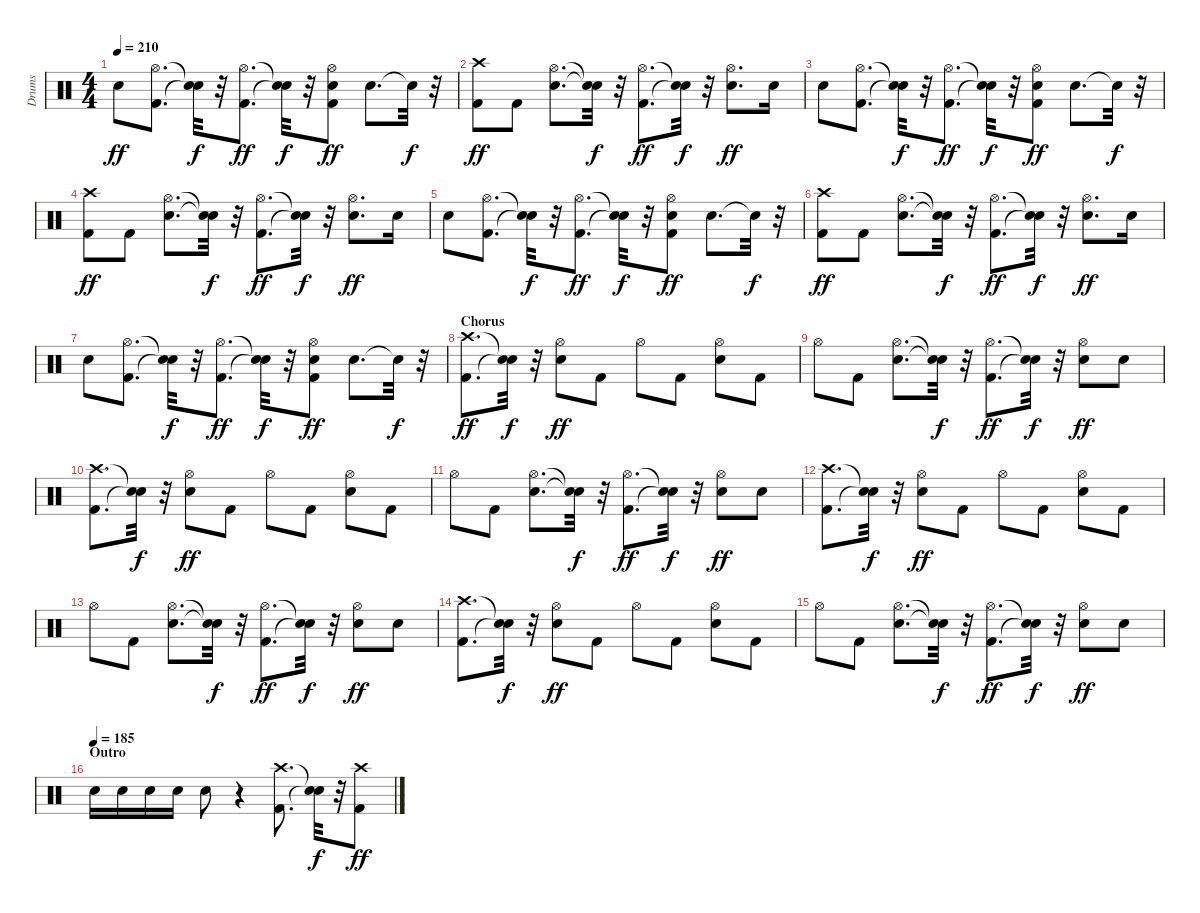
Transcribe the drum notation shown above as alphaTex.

\track ("Drums" "Drums") {instrument percussion}
\staff {score}
\articulation defaults
\ts (4 4)
\tempo 210
\clef neutral
\ks c "Snare (hit) 2".8{dy ff}
("Kick (hit) 2" "Hi-Hat (open)").8{d} ("Snare (hit)"{t} "Snare (hit)"{t}).32{dy f} r.32 ("Kick (hit) 2" "Hi-Hat (open)").8{d dy ff} ("Snare (hit)"{t} "Snare (hit)"{t}).32{dy f} r.32 ("Kick (hit) 2" "Snare (hit) 2" "Hi-Hat (open)").8{dy ff} "Snare (hit) 2".8{d} "Snare (hit)"{t}.32{dy f} r.32 |
("Kick (hit) 2" "Crash high (hit)").8{dy ff} "Kick (hit) 2".8 ("Snare (hit) 2" "Hi-Hat (open)").8{d} ("Snare (hit)"{t} "Snare (hit)"{t}).32{dy f} r.32 ("Kick (hit) 2" "Hi-Hat (open)").8{d dy ff} ("Snare (hit)"{t} "Snare (hit)"{t}).32{dy f} r.32 ("Snare (hit) 2" "Hi-Hat (open)").8{d dy ff} "Snare (hit) 2".16 |
"Snare (hit) 2".8 ("Kick (hit) 2" "Hi-Hat (open)").8{d} ("Snare (hit)"{t} "Snare (hit)"{t}).32{dy f} r.32 ("Kick (hit) 2" "Hi-Hat (open)").8{d dy ff} ("Snare (hit)"{t} "Snare (hit)"{t}).32{dy f} r.32 ("Kick (hit) 2" "Snare (hit) 2" "Hi-Hat (open)").8{dy ff} "Snare (hit) 2".8{d} "Snare (hit)"{t}.32{dy f} r.32 |
("Kick (hit) 2" "Crash high (hit)").8{dy ff} "Kick (hit) 2".8 ("Snare (hit) 2" "Hi-Hat (open)").8{d} ("Snare (hit)"{t} "Snare (hit)"{t}).32{dy f} r.32 ("Kick (hit) 2" "Hi-Hat (open)").8{d dy ff} ("Snare (hit)"{t} "Snare (hit)"{t}).32{dy f} r.32 ("Snare (hit) 2" "Hi-Hat (open)").8{d dy ff} "Snare (hit) 2".16 |
"Snare (hit) 2".8 ("Kick (hit) 2" "Hi-Hat (open)").8{d} ("Snare (hit)"{t} "Snare (hit)"{t}).32{dy f} r.32 ("Kick (hit) 2" "Hi-Hat (open)").8{d dy ff} ("Snare (hit)"{t} "Snare (hit)"{t}).32{dy f} r.32 ("Kick (hit) 2" "Snare (hit) 2" "Hi-Hat (open)").8{dy ff} "Snare (hit) 2".8{d} "Snare (hit)"{t}.32{dy f} r.32 |
("Kick (hit) 2" "Crash high (hit)").8{dy ff} "Kick (hit) 2".8 ("Snare (hit) 2" "Hi-Hat (open)").8{d} ("Snare (hit)"{t} "Snare (hit)"{t}).32{dy f} r.32 ("Kick (hit) 2" "Hi-Hat (open)").8{d dy ff} ("Snare (hit)"{t} "Snare (hit)"{t}).32{dy f} r.32 ("Snare (hit) 2" "Hi-Hat (open)").8{d dy ff} "Snare (hit) 2".16 |
"Snare (hit) 2".8 ("Kick (hit) 2" "Hi-Hat (open)").8{d} ("Snare (hit)"{t} "Snare (hit)"{t}).32{dy f} r.32 ("Kick (hit) 2" "Hi-Hat (open)").8{d dy ff} ("Snare (hit)"{t} "Snare (hit)"{t}).32{dy f} r.32 ("Kick (hit) 2" "Snare (hit) 2" "Hi-Hat (open)").8{dy ff} "Snare (hit) 2".8{d} "Snare (hit)"{t}.32{dy f} r.32 |
\section ("" "Chorus")
("Kick (hit) 2" "Crash high (hit)").8{d dy ff} ("Snare (hit)"{t} "Snare (hit)"{t}).32{dy f} r.32 ("Snare (hit) 2" "Hi-Hat (open)").8{dy ff} "Kick (hit) 2".8 "Hi-Hat (open)".8 "Kick (hit) 2".8 ("Snare (hit) 2" "Hi-Hat (open)").8 "Kick (hit) 2".8 |
"Hi-Hat (open)".8 "Kick (hit) 2".8 ("Snare (hit) 2" "Hi-Hat (open)").8{d} ("Snare (hit)"{t} "Snare (hit)"{t}).32{dy f} r.32 ("Kick (hit) 2" "Hi-Hat (open)").8{d dy ff} ("Snare (hit)"{t} "Snare (hit)"{t}).32{dy f} r.32 ("Snare (hit) 2" "Hi-Hat (open)").8{dy ff} "Snare (hit) 2".8 |
("Kick (hit) 2" "Crash high (hit)").8{d} ("Snare (hit)"{t} "Snare (hit)"{t}).32{dy f} r.32 ("Snare (hit) 2" "Hi-Hat (open)").8{dy ff} "Kick (hit) 2".8 "Hi-Hat (open)".8 "Kick (hit) 2".8 ("Snare (hit) 2" "Hi-Hat (open)").8 "Kick (hit) 2".8 |
"Hi-Hat (open)".8 "Kick (hit) 2".8 ("Snare (hit) 2" "Hi-Hat (open)").8{d} ("Snare (hit)"{t} "Snare (hit)"{t}).32{dy f} r.32 ("Kick (hit) 2" "Hi-Hat (open)").8{d dy ff} ("Snare (hit)"{t} "Snare (hit)"{t}).32{dy f} r.32 ("Snare (hit) 2" "Hi-Hat (open)").8{dy ff} "Snare (hit) 2".8 |
("Kick (hit) 2" "Crash high (hit)").8{d} ("Snare (hit)"{t} "Snare (hit)"{t}).32{dy f} r.32 ("Snare (hit) 2" "Hi-Hat (open)").8{dy ff} "Kick (hit) 2".8 "Hi-Hat (open)".8 "Kick (hit) 2".8 ("Snare (hit) 2" "Hi-Hat (open)").8 "Kick (hit) 2".8 |
"Hi-Hat (open)".8 "Kick (hit) 2".8 ("Snare (hit) 2" "Hi-Hat (open)").8{d} ("Snare (hit)"{t} "Snare (hit)"{t}).32{dy f} r.32 ("Kick (hit) 2" "Hi-Hat (open)").8{d dy ff} ("Snare (hit)"{t} "Snare (hit)"{t}).32{dy f} r.32 ("Snare (hit) 2" "Hi-Hat (open)").8{dy ff} "Snare (hit) 2".8 |
("Kick (hit) 2" "Crash high (hit)").8{d} ("Snare (hit)"{t} "Snare (hit)"{t}).32{dy f} r.32 ("Snare (hit) 2" "Hi-Hat (open)").8{dy ff} "Kick (hit) 2".8 "Hi-Hat (open)".8 "Kick (hit) 2".8 ("Snare (hit) 2" "Hi-Hat (open)").8 "Kick (hit) 2".8 |
"Hi-Hat (open)".8 "Kick (hit) 2".8 ("Snare (hit) 2" "Hi-Hat (open)").8{d} ("Snare (hit)"{t} "Snare (hit)"{t}).32{dy f} r.32 ("Kick (hit) 2" "Hi-Hat (open)").8{d dy ff} ("Snare (hit)"{t} "Snare (hit)"{t}).32{dy f} r.32 ("Snare (hit) 2" "Hi-Hat (open)").8{dy ff} "Snare (hit) 2".8 |
\section ("" "Outro")
\tempo (185)
"Snare (hit) 2".16 "Snare (hit) 2".16 "Snare (hit) 2".16 "Snare (hit) 2".16 "Snare (hit) 2".8 r.4 ("Kick (hit) 2" "Crash high (hit)").8{d} ("Snare (hit)"{t} "Snare (hit)"{t}).32{dy f} r.32 ("Kick (hit) 2" "Crash high (hit)").8{dy ff}
